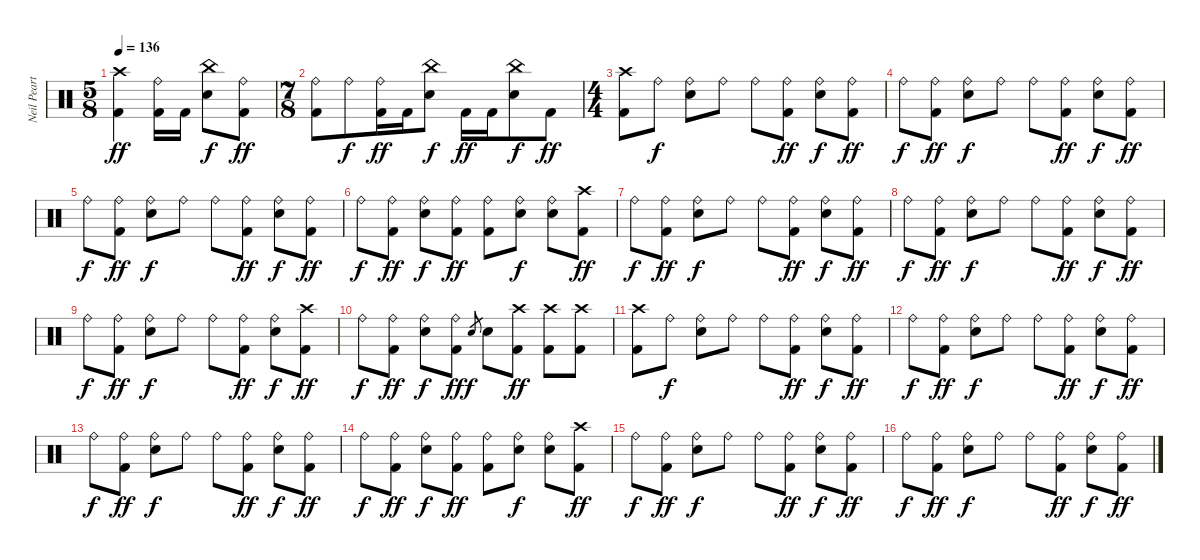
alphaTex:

\track ("Neil Peart" "Neil Peart") {instrument percussion}
\staff {score}
\articulation defaults
\ts (5 8)
\tempo 136
\clef neutral
\ks c
("Crash high (hit)" "Kick (hit) 2").4{dy ff} ("Ride (bell)" "Kick (hit) 2").16 "Kick (hit) 2".16 ("China (hit)" "Snare (hit) 2").8{dy f} ("Ride (bell)" "Kick (hit) 2").8{dy ff} |
\ts (7 8)
("Ride (bell)" "Kick (hit) 2").8 "Ride (bell)".8{dy f} ("Ride (bell)" "Kick (hit) 2").16{dy ff} "Kick (hit) 2".16 ("China (hit)" "Snare (hit) 2").8{dy f} "Kick (hit) 2".16{dy ff} "Kick (hit) 2".16 ("China (hit)" "Snare (hit) 2").8{dy f} "Kick (hit) 2".8{dy ff} |
\ts (4 4)
("Crash high (hit)" "Kick (hit) 2").8 "Ride (bell)".8{dy f} ("Ride (bell)" "Snare (hit) 2").8 "Ride (bell)".8 "Ride (bell)".8 ("Ride (bell)" "Kick (hit) 2").8{dy ff} ("Ride (bell)" "Snare (hit) 2").8{dy f} ("Ride (bell)" "Kick (hit) 2").8{dy ff} |
"Ride (bell)".8{dy f} ("Ride (bell)" "Kick (hit) 2").8{dy ff} ("Ride (bell)" "Snare (hit) 2").8{dy f} "Ride (bell)".8 "Ride (bell)".8 ("Ride (bell)" "Kick (hit) 2").8{dy ff} ("Ride (bell)" "Snare (hit) 2").8{dy f} ("Ride (bell)" "Kick (hit) 2").8{dy ff} |
"Ride (bell)".8{dy f} ("Ride (bell)" "Kick (hit) 2").8{dy ff} ("Ride (bell)" "Snare (hit) 2").8{dy f} "Ride (bell)".8 "Ride (bell)".8 ("Ride (bell)" "Kick (hit) 2").8{dy ff} ("Ride (bell)" "Snare (hit) 2").8{dy f} ("Ride (bell)" "Kick (hit) 2").8{dy ff} |
"Ride (bell)".8{dy f} ("Ride (bell)" "Kick (hit) 2").8{dy ff} ("Ride (bell)" "Snare (hit) 2").8{dy f} ("Ride (bell)" "Kick (hit) 2").8{dy ff} ("Ride (bell)" "Kick (hit) 2").8 ("Ride (bell)" "Snare (hit) 2").8{dy f} ("Ride (bell)" "Snare (hit) 2").8 ("Crash high (hit)" "Kick (hit) 2").8{dy ff} |
"Ride (bell)".8{dy f} ("Ride (bell)" "Kick (hit) 2").8{dy ff} ("Ride (bell)" "Snare (hit) 2").8{dy f} "Ride (bell)".8 "Ride (bell)".8 ("Ride (bell)" "Kick (hit) 2").8{dy ff} ("Ride (bell)" "Snare (hit) 2").8{dy f} ("Ride (bell)" "Kick (hit) 2").8{dy ff} |
"Ride (bell)".8{dy f} ("Ride (bell)" "Kick (hit) 2").8{dy ff} ("Ride (bell)" "Snare (hit) 2").8{dy f} "Ride (bell)".8 "Ride (bell)".8 ("Ride (bell)" "Kick (hit) 2").8{dy ff} ("Ride (bell)" "Snare (hit) 2").8{dy f} ("Ride (bell)" "Kick (hit) 2").8{dy ff} |
"Ride (bell)".8{dy f} ("Ride (bell)" "Kick (hit) 2").8{dy ff} ("Ride (bell)" "Snare (hit) 2").8{dy f} "Ride (bell)".8 "Ride (bell)".8 ("Ride (bell)" "Kick (hit) 2").8{dy ff} ("Ride (bell)" "Snare (hit) 2").8{dy f} ("Crash high (hit)" "Kick (hit) 2").8{dy ff} |
"Ride (bell)".8{dy f} ("Ride (bell)" "Kick (hit) 2").8{dy ff} ("Ride (bell)" "Snare (hit) 2").8{dy f} ("Ride (bell)" "Kick (hit) 2").8{dy ff} "Snare (hit) 2".8{gr dy f} "Snare (hit) 2".8 ("Crash high (hit)" "Kick (hit) 2").8{dy ff} ("Crash high (hit)" "Kick (hit) 2").8 ("Crash high (hit)" "Kick (hit) 2").8 |
("Crash high (hit)" "Kick (hit) 2").8 "Ride (bell)".8{dy f} ("Ride (bell)" "Snare (hit) 2").8 "Ride (bell)".8 "Ride (bell)".8 ("Ride (bell)" "Kick (hit) 2").8{dy ff} ("Ride (bell)" "Snare (hit) 2").8{dy f} ("Ride (bell)" "Kick (hit) 2").8{dy ff} |
"Ride (bell)".8{dy f} ("Ride (bell)" "Kick (hit) 2").8{dy ff} ("Ride (bell)" "Snare (hit) 2").8{dy f} "Ride (bell)".8 "Ride (bell)".8 ("Ride (bell)" "Kick (hit) 2").8{dy ff} ("Ride (bell)" "Snare (hit) 2").8{dy f} ("Ride (bell)" "Kick (hit) 2").8{dy ff} |
"Ride (bell)".8{dy f} ("Ride (bell)" "Kick (hit) 2").8{dy ff} ("Ride (bell)" "Snare (hit) 2").8{dy f} "Ride (bell)".8 "Ride (bell)".8 ("Ride (bell)" "Kick (hit) 2").8{dy ff} ("Ride (bell)" "Snare (hit) 2").8{dy f} ("Ride (bell)" "Kick (hit) 2").8{dy ff} |
"Ride (bell)".8{dy f} ("Ride (bell)" "Kick (hit) 2").8{dy ff} ("Ride (bell)" "Snare (hit) 2").8{dy f} ("Ride (bell)" "Kick (hit) 2").8{dy ff} ("Ride (bell)" "Kick (hit) 2").8 ("Ride (bell)" "Snare (hit) 2").8{dy f} ("Ride (bell)" "Snare (hit) 2").8 ("Crash high (hit)" "Kick (hit) 2").8{dy ff} |
"Ride (bell)".8{dy f} ("Ride (bell)" "Kick (hit) 2").8{dy ff} ("Ride (bell)" "Snare (hit) 2").8{dy f} "Ride (bell)".8 "Ride (bell)".8 ("Ride (bell)" "Kick (hit) 2").8{dy ff} ("Ride (bell)" "Snare (hit) 2").8{dy f} ("Ride (bell)" "Kick (hit) 2").8{dy ff} |
"Ride (bell)".8{dy f} ("Ride (bell)" "Kick (hit) 2").8{dy ff} ("Ride (bell)" "Snare (hit) 2").8{dy f} "Ride (bell)".8 "Ride (bell)".8 ("Ride (bell)" "Kick (hit) 2").8{dy ff} ("Ride (bell)" "Snare (hit) 2").8{dy f} ("Ride (bell)" "Kick (hit) 2").8{dy ff}
